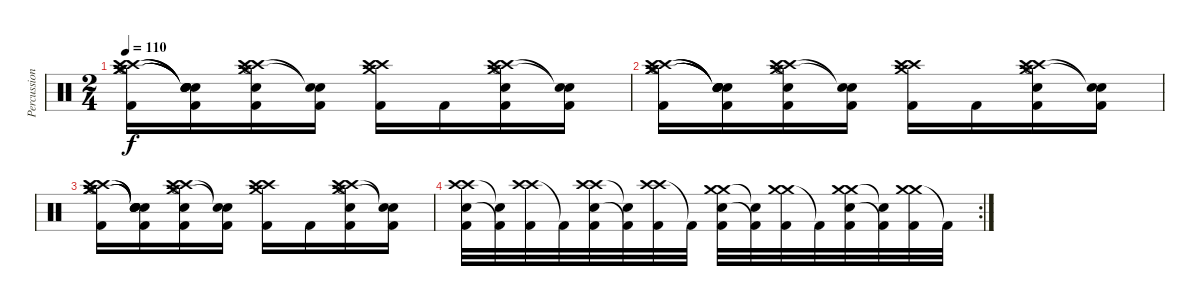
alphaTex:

\track ("Percussion" "Percussion") {instrument percussion}
\staff {score}
\articulation defaults
\ts (2 4)
\tempo 110
\clef neutral
\ks c
("Crash high (hit)" "Crash medium (hit)" "Crash high (hit)" "Crash medium (hit)" "Hi-Hat (open)" "Kick (hit) 2").16{dy f} ("Snare (hit)"{t} "Snare (hit)"{t} "Snare (hit)"{t} "Snare (hit)"{t} "Snare (hit)"{t} "Kick (hit) 2").16 ("Crash high (hit)" "Crash medium (hit)" "Crash high (hit)" "Hi-Hat (open)" "Snare (hit) 2" "Kick (hit) 2").16 ("Snare (hit)"{t} "Snare (hit)"{t} "Kick (hit) 2").16 ("Crash high (hit)" "Crash medium (hit)" "Crash high (hit)" "Kick (hit) 2").16 "Kick (hit) 2".16 ("Crash high (hit)" "Crash medium (hit)" "Crash high (hit)" "Hi-Hat (open)" "Snare (hit) 2" "Kick (hit) 2").16 ("Snare (hit)"{t} "Snare (hit)"{t} "Kick (hit) 2").16 |
("Crash high (hit)" "Crash medium (hit)" "Crash high (hit)" "Crash medium (hit)" "Hi-Hat (open)" "Kick (hit) 2").16 ("Snare (hit)"{t} "Snare (hit)"{t} "Snare (hit)"{t} "Snare (hit)"{t} "Snare (hit)"{t} "Kick (hit) 2").16 ("Crash high (hit)" "Crash medium (hit)" "Crash high (hit)" "Hi-Hat (open)" "Snare (hit) 2" "Kick (hit) 2").16 ("Snare (hit)"{t} "Snare (hit)"{t} "Kick (hit) 2").16 ("Crash high (hit)" "Crash medium (hit)" "Crash high (hit)" "Kick (hit) 2").16 "Kick (hit) 2".16 ("Crash high (hit)" "Crash medium (hit)" "Crash high (hit)" "Hi-Hat (open)" "Snare (hit) 2" "Kick (hit) 2").16 ("Snare (hit)"{t} "Snare (hit)"{t} "Kick (hit) 2").16 |
("Crash high (hit)" "Crash medium (hit)" "Crash high (hit)" "Crash medium (hit)" "Hi-Hat (open)" "Kick (hit) 2").16 ("Snare (hit)"{t} "Snare (hit)"{t} "Snare (hit)"{t} "Snare (hit)"{t} "Snare (hit)"{t} "Kick (hit) 2").16 ("Crash high (hit)" "Crash medium (hit)" "Crash high (hit)" "Hi-Hat (open)" "Snare (hit) 2" "Kick (hit) 2").16 ("Snare (hit)"{t} "Snare (hit)"{t} "Kick (hit) 2").16 ("Crash high (hit)" "Crash medium (hit)" "Crash high (hit)" "Kick (hit) 2").16 "Kick (hit) 2".16 ("Crash high (hit)" "Crash medium (hit)" "Crash high (hit)" "Hi-Hat (open)" "Snare (hit) 2" "Kick (hit) 2").16 ("Snare (hit)"{t} "Snare (hit)"{t} "Kick (hit) 2").16 |
\rc 2
("Crash high (hit)" "Snare (hit) 2" "Crash high (hit)" "Kick (hit) 2").32 ("Snare (hit) 2"{t} "Kick (hit) 2"{t}).32 ("Crash high (hit)" "Crash high (hit)" "Kick (hit) 2").32 "Kick (hit) 2"{t}.32 ("Crash high (hit)" "Snare (hit) 2" "Crash high (hit)" "Kick (hit) 2").32 ("Snare (hit) 2"{t} "Kick (hit) 2"{t}).32 ("Crash high (hit)" "Crash high (hit)" "Kick (hit) 2").32 "Kick (hit) 2"{t}.32 ("Crash medium (hit)" "Snare (hit) 2" "Crash medium (hit)" "Kick (hit) 2").32 ("Snare (hit) 2"{t} "Kick (hit) 2"{t}).32 ("Crash medium (hit)" "Crash medium (hit)" "Kick (hit) 2").32 "Kick (hit) 2"{t}.32 ("Crash medium (hit)" "Snare (hit) 2" "Crash medium (hit)" "Kick (hit) 2").32 ("Snare (hit) 2"{t} "Kick (hit) 2"{t}).32 ("Crash medium (hit)" "Crash medium (hit)" "Kick (hit) 2").32 "Kick (hit) 2"{t}.32
